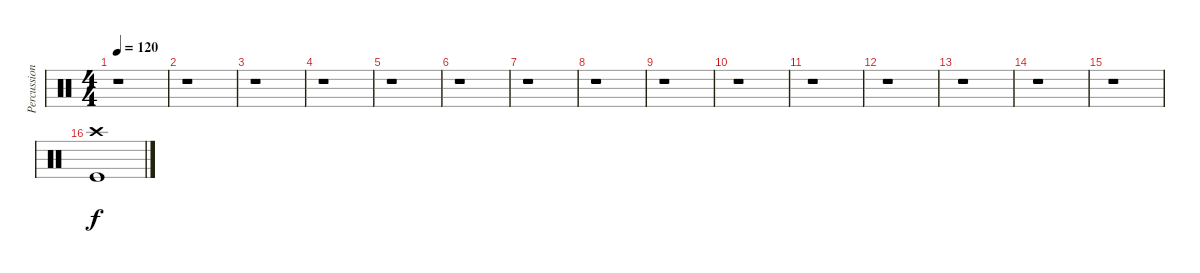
\track ("Percussion" "Percussion") {instrument percussion}
\staff {score}
\articulation defaults
\ts (4 4)
\tempo 120
\clef neutral
\ks c
r.1{dy f} |
r.1 |
r.1 |
r.1 |
r.1 |
r.1 |
r.1 |
r.1 |
r.1 |
r.1 |
r.1 |
r.1 |
r.1 |
r.1 |
r.1 |
("Crash high (hit)" "Kick (hit)").1
